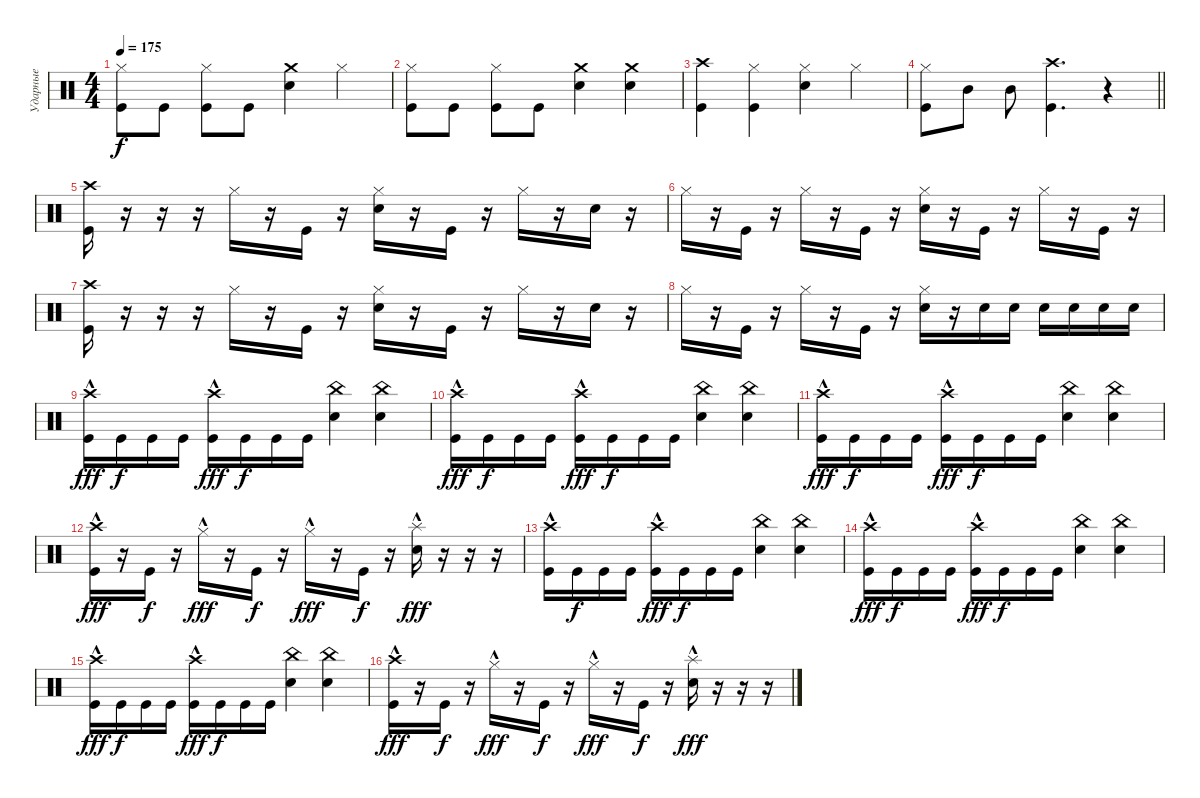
\track ("Ударные" "Ударные") {instrument percussion}
\staff {score}
\articulation defaults
\ts (4 4)
\tempo 175
\clef neutral
\ks c
("Hi-Hat (closed)" "Kick (hit)").8{dy f} "Kick (hit)".8 ("Hi-Hat (closed)" "Kick (hit)").8 "Kick (hit)".8 ("Crash medium (hit)" "Electric Snare (hit)").4 "Hi-Hat (closed)".4 |
("Hi-Hat (closed)" "Kick (hit)").8 "Kick (hit)".8 ("Hi-Hat (closed)" "Kick (hit)").8 "Kick (hit)".8 ("Crash medium (hit)" "Electric Snare (hit)").4 ("Crash medium (hit)" "Electric Snare (hit)").4 |
("Crash high (hit)" "Kick (hit)").4 ("Hi-Hat (closed)" "Kick (hit)").4 ("Hi-Hat (closed)" "Electric Snare (hit)").4 "Hi-Hat (closed)".4 |
\barLineRight lightlight
("Hi-Hat (closed)" "Kick (hit)").8 "Mid Tom (hit)".8 "Mid Tom (hit)".8 ("Crash high (hit)" "Kick (hit)").4{d} r.4 |
("Crash high (hit)" "Kick (hit)").16 r.16 r.16 r.16 "Hi-Hat (closed)".16 r.16 "Kick (hit)".16 r.16 ("Hi-Hat (closed)" "Electric Snare (hit)").16 r.16 "Kick (hit)".16 r.16 "Hi-Hat (closed)".16 r.16 "Electric Snare (hit)".16 r.16 |
"Hi-Hat (closed)".16 r.16 "Kick (hit)".16 r.16 "Hi-Hat (closed)".16 r.16 "Kick (hit)".16 r.16 ("Hi-Hat (closed)" "Electric Snare (hit)").16 r.16 "Kick (hit)".16 r.16 "Hi-Hat (closed)".16 r.16 "Kick (hit)".16 r.16 |
("Crash high (hit)" "Kick (hit)").16 r.16 r.16 r.16 "Hi-Hat (closed)".16 r.16 "Kick (hit)".16 r.16 ("Hi-Hat (closed)" "Electric Snare (hit)").16 r.16 "Kick (hit)".16 r.16 "Hi-Hat (closed)".16 r.16 "Electric Snare (hit)".16 r.16 |
"Hi-Hat (closed)".16 r.16 "Kick (hit)".16 r.16 "Hi-Hat (closed)".16 r.16 "Kick (hit)".16 r.16 ("Hi-Hat (closed)" "Electric Snare (hit)").16 r.16 "Electric Snare (hit)".16 "Electric Snare (hit)".16 "Electric Snare (hit)".16 "Electric Snare (hit)".16 "Electric Snare (hit)".16 "Electric Snare (hit)".16 |
("Crash high (hit)"{hac} "Kick (hit)").16{dy fff} "Kick (hit)".16{dy f} "Kick (hit)".16 "Kick (hit)".16 ("Crash high (hit)"{hac} "Kick (hit)").16{dy fff} "Kick (hit)".16{dy f} "Kick (hit)".16 "Kick (hit)".16 ("China (hit)" "Electric Snare (hit)").4 ("China (hit)" "Electric Snare (hit)").4 |
("Crash high (hit)"{hac} "Kick (hit)").16{dy fff} "Kick (hit)".16{dy f} "Kick (hit)".16 "Kick (hit)".16 ("Crash high (hit)"{hac} "Kick (hit)").16{dy fff} "Kick (hit)".16{dy f} "Kick (hit)".16 "Kick (hit)".16 ("China (hit)" "Electric Snare (hit)").4 ("China (hit)" "Electric Snare (hit)").4 |
("Crash high (hit)"{hac} "Kick (hit)").16{dy fff} "Kick (hit)".16{dy f} "Kick (hit)".16 "Kick (hit)".16 ("Crash high (hit)"{hac} "Kick (hit)").16{dy fff} "Kick (hit)".16{dy f} "Kick (hit)".16 "Kick (hit)".16 ("China (hit)" "Electric Snare (hit)").4 ("China (hit)" "Electric Snare (hit)").4 |
("Crash high (hit)"{hac} "Kick (hit)").16{dy fff} r.16 "Kick (hit)".16{dy f} r.16 "Hi-Hat (closed)"{hac}.16{dy fff} r.16 "Kick (hit)".16{dy f} r.16 "Hi-Hat (closed)"{hac}.16{dy fff} r.16 "Kick (hit)".16{dy f} r.16 ("Splash (hit)"{hac} "Electric Snare (hit)").16{dy fff} r.16 r.16 r.16 |
("Crash high (hit)"{hac} "Kick (hit)").16 "Kick (hit)".16{dy f} "Kick (hit)".16 "Kick (hit)".16 ("Crash high (hit)"{hac} "Kick (hit)").16{dy fff} "Kick (hit)".16{dy f} "Kick (hit)".16 "Kick (hit)".16 ("China (hit)" "Electric Snare (hit)").4 ("China (hit)" "Electric Snare (hit)").4 |
("Crash high (hit)"{hac} "Kick (hit)").16{dy fff} "Kick (hit)".16{dy f} "Kick (hit)".16 "Kick (hit)".16 ("Crash high (hit)"{hac} "Kick (hit)").16{dy fff} "Kick (hit)".16{dy f} "Kick (hit)".16 "Kick (hit)".16 ("China (hit)" "Electric Snare (hit)").4 ("China (hit)" "Electric Snare (hit)").4 |
("Crash high (hit)"{hac} "Kick (hit)").16{dy fff} "Kick (hit)".16{dy f} "Kick (hit)".16 "Kick (hit)".16 ("Crash high (hit)"{hac} "Kick (hit)").16{dy fff} "Kick (hit)".16{dy f} "Kick (hit)".16 "Kick (hit)".16 ("China (hit)" "Electric Snare (hit)").4 ("China (hit)" "Electric Snare (hit)").4 |
("Crash high (hit)"{hac} "Kick (hit)").16{dy fff} r.16 "Kick (hit)".16{dy f} r.16 "Hi-Hat (closed)"{hac}.16{dy fff} r.16 "Kick (hit)".16{dy f} r.16 "Hi-Hat (closed)"{hac}.16{dy fff} r.16 "Kick (hit)".16{dy f} r.16 ("Splash (hit)"{hac} "Electric Snare (hit)").16{dy fff} r.16 r.16 r.16
